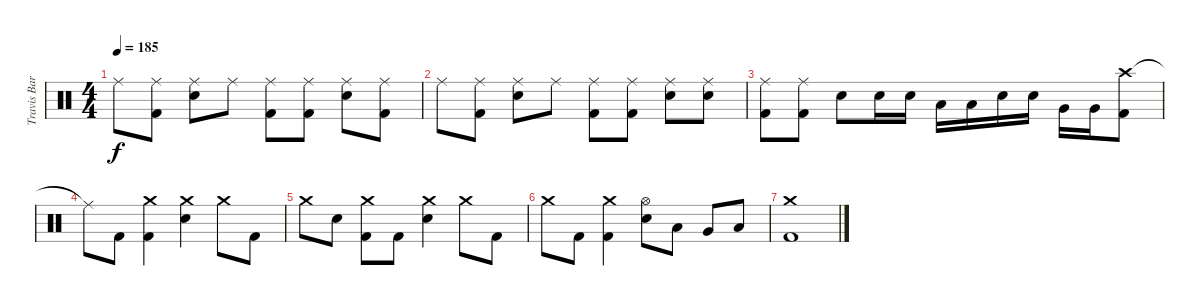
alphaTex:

\track ("Travis Barker - Drums" "Travis Bar") {instrument percussion}
\staff {score}
\articulation defaults
\ts (4 4)
\tempo 185
\clef neutral
\ks c "Ride (middle)".8{dy f}
("Ride (middle)" "Kick (hit) 2").8 ("Ride (middle)" "Electric Snare (hit)").8 "Ride (middle)".8 ("Ride (middle)" "Kick (hit) 2").8 ("Ride (middle)" "Kick (hit) 2").8 ("Ride (middle)" "Electric Snare (hit)").8 ("Ride (middle)" "Kick (hit) 2").8 |
"Ride (middle)".8 ("Ride (middle)" "Kick (hit) 2").8 ("Ride (middle)" "Electric Snare (hit)").8 "Ride (middle)".8 ("Ride (middle)" "Kick (hit) 2").8 ("Ride (middle)" "Kick (hit) 2").8 ("Ride (middle)" "Electric Snare (hit)").8 ("Ride (middle)" "Electric Snare (hit)").8 |
("Ride (middle)" "Kick (hit) 2").8 ("Ride (middle)" "Kick (hit) 2").8 "Electric Snare (hit)".8 "Electric Snare (hit)".16 "Electric Snare (hit)".16 "Low Tom (hit)".16 "Low Tom (hit)".16 "Electric Snare (hit)".16 "Electric Snare (hit)".16 "Very Low Tom (hit)".16 "Very Low Tom (hit)".16 ("Crash high (hit)" "Kick (hit) 2").8 |
"Ride (middle)"{t}.8 "Kick (hit) 2".8 ("Crash medium (hit)" "Kick (hit) 2").4 ("Crash medium (hit)" "Electric Snare (hit)").4 "Crash medium (hit)".8 "Kick (hit) 2".8 |
"Crash medium (hit)".8 "Electric Snare (hit)".8 ("Crash medium (hit)" "Kick (hit) 2").8 "Kick (hit) 2".8 ("Crash medium (hit)" "Electric Snare (hit)").4 "Crash medium (hit)".8 "Kick (hit) 2".8 |
"Crash medium (hit)".8 "Kick (hit) 2".8 ("Crash medium (hit)" "Kick (hit) 2").4 ("Hi-Hat (open)" "Electric Snare (hit)").8 "Low Tom (hit)".8 "Very Low Tom (hit)".8 "Low Floor Tom (hit)".8 |
("Crash medium (hit)" "Kick (hit) 2").1
